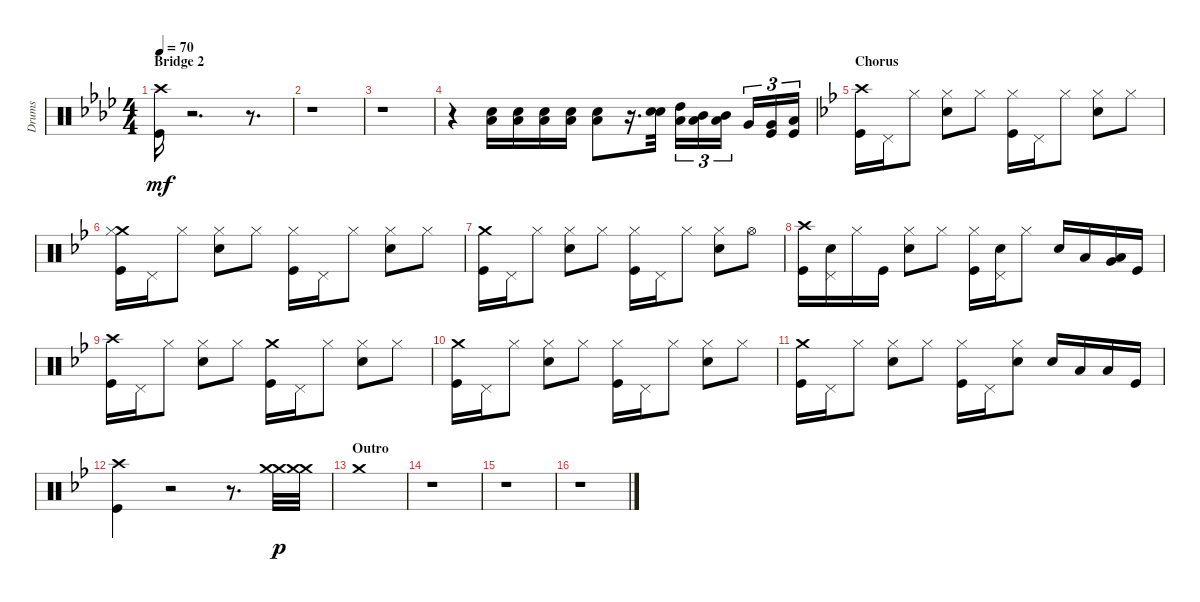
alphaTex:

\track ("Drums" "Drums") {instrument percussion}
\staff {score}
\articulation defaults
\ts (4 4)
\section ("" "Bridge 2")
\tempo 70
\clef neutral
\ks ab
("Crash high (hit)" "Kick (hit)").16{dy mf} r.2{d} r.8{d} |
r.1 |
r.1 |
r.4 ("Low Floor Tom (hit)" "Electric Snare (hit)").16 ("Low Floor Tom (hit)" "Electric Snare (hit)").16 ("Low Floor Tom (hit)" "Electric Snare (hit)").16 ("Low Floor Tom (hit)" "Electric Snare (hit)").16 ("Low Floor Tom (hit)" "Electric Snare (hit)").8 r.16{d} ("Electric Snare (hit)" "Electric Snare (hit)").32 ("High Tom (hit)" "Low Tom (hit)").16{tu (3 2)} ("Mid Tom (hit)" "Low Tom (hit)").16{tu (3 2)} ("Mid Tom (hit)" "Low Tom (hit)").16{tu (3 2)} "Very Low Tom (hit)".16{tu (3 2)} ("Very Low Tom (hit)" "Kick (hit)").16{tu (3 2)} ("Low Floor Tom (hit)" "Kick (hit)").16{tu (3 2)} |
\section ("" "Chorus")
\ks bb
("Crash high (hit)" "Kick (hit)").16 "Pedal Hi-Hat (hit)".16 "Hi-Hat (closed)".8 ("Hi-Hat (closed)" "Electric Snare (hit)").8 "Hi-Hat (closed)".8 ("Hi-Hat (closed)" "Kick (hit)").16 "Pedal Hi-Hat (hit)".16 "Hi-Hat (closed)".8 ("Hi-Hat (closed)" "Electric Snare (hit)").8 "Hi-Hat (closed)".8 |
("Crash medium (hit)" "Hi-Hat (closed)" "Kick (hit)").16 "Pedal Hi-Hat (hit)".16 "Hi-Hat (closed)".8 ("Hi-Hat (closed)" "Electric Snare (hit)").8 "Hi-Hat (closed)".8 ("Hi-Hat (closed)" "Kick (hit)").16 "Pedal Hi-Hat (hit)".16 "Hi-Hat (closed)".8 ("Hi-Hat (closed)" "Electric Snare (hit)").8 "Hi-Hat (closed)".8 |
("Crash medium (hit)" "Kick (hit)").16 "Pedal Hi-Hat (hit)".16 "Hi-Hat (closed)".8 ("Hi-Hat (closed)" "Electric Snare (hit)").8 "Hi-Hat (closed)".8 ("Hi-Hat (closed)" "Kick (hit)").16 "Pedal Hi-Hat (hit)".16 "Hi-Hat (closed)".8 ("Hi-Hat (closed)" "Electric Snare (hit)").8 "Hi-Hat (open)".8 |
("Crash high (hit)" "Kick (hit)").16 ("Pedal Hi-Hat (hit)" "Electric Snare (hit)").16 "Hi-Hat (closed)".16 "Kick (hit)".16 ("Hi-Hat (closed)" "Electric Snare (hit)").8 "Hi-Hat (closed)".8 ("Hi-Hat (closed)" "Kick (hit)").16 ("Pedal Hi-Hat (hit)" "Electric Snare (hit)").16 "Hi-Hat (closed)".8 "Electric Snare (hit)".16 "Low Tom (hit)".16 ("Very Low Tom (hit)" "Low Floor Tom (hit)").16 "Kick (hit)".16 |
("Crash high (hit)" "Kick (hit)").16 "Pedal Hi-Hat (hit)".16 "Hi-Hat (closed)".8 ("Hi-Hat (closed)" "Electric Snare (hit)").8 "Hi-Hat (closed)".8 ("Crash medium (hit)" "Kick (hit)").16 "Pedal Hi-Hat (hit)".16 "Hi-Hat (closed)".8 ("Hi-Hat (closed)" "Electric Snare (hit)").8 "Hi-Hat (closed)".8 |
("Crash medium (hit)" "Kick (hit)").16 "Pedal Hi-Hat (hit)".16 "Hi-Hat (closed)".8 ("Hi-Hat (closed)" "Electric Snare (hit)").8 "Hi-Hat (closed)".8 ("Hi-Hat (closed)" "Kick (hit)").16 "Pedal Hi-Hat (hit)".16 "Hi-Hat (closed)".8 ("Hi-Hat (closed)" "Electric Snare (hit)").8 "Hi-Hat (closed)".8 |
("Crash medium (hit)" "Kick (hit)").16 "Pedal Hi-Hat (hit)".16 "Hi-Hat (closed)".8 ("Hi-Hat (closed)" "Electric Snare (hit)").8 "Hi-Hat (closed)".8 ("Hi-Hat (closed)" "Kick (hit)").16 "Pedal Hi-Hat (hit)".16 ("Hi-Hat (closed)" "Electric Snare (hit)").8 "Electric Snare (hit)".16 "Low Tom (hit)".16 "Low Floor Tom (hit)".16 "Kick (hit)".16 |
("Crash high (hit)" "Kick (hit)").4 r.2 r.8{d} ("Crash medium (hit)" "Crash medium (hit)").32{dy p} ("Crash medium (hit)" "Crash medium (hit)").32 |
\section ("" "Outro")
"Crash medium (hit)".1 |
r.1 |
r.1 |
r.1
